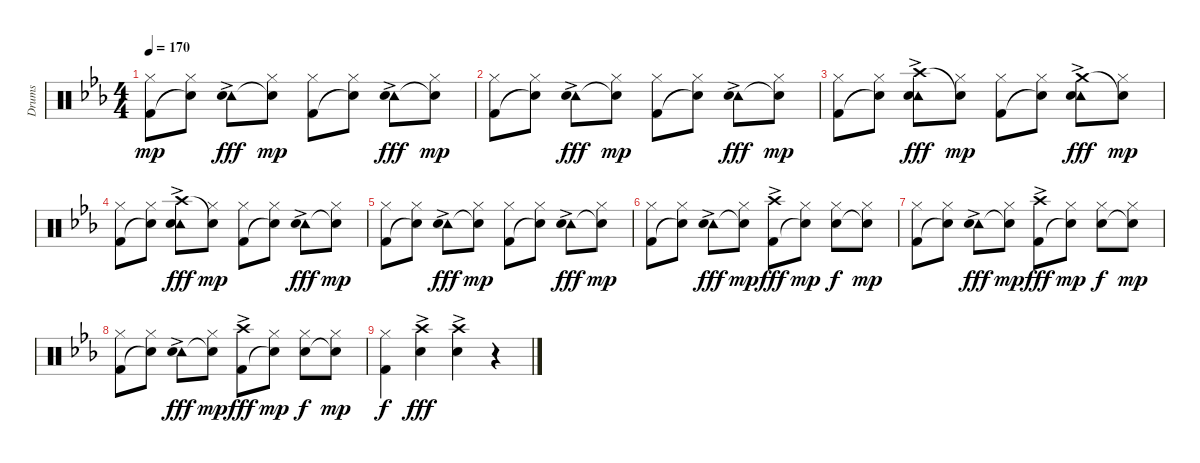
\track ("Drums" "Drums") {instrument percussion}
\staff {score}
\articulation defaults
\ts (4 4)
\tempo 170
\clef neutral
\ks cminor
("Hi-Hat (closed)" "Kick (hit) 2").8{dy mp} ("Hi-Hat (closed)" "Snare (hit)"{t}).8 ("Tambourine (hit)"{ac} "Hand Clap (hit)").8{dy fff} ("Hi-Hat (closed)" "Snare (hit)"{t}).8{dy mp} ("Hi-Hat (closed)" "Kick (hit) 2").8 ("Hi-Hat (closed)" "Snare (hit)"{t}).8 ("Tambourine (hit)"{ac} "Hand Clap (hit)").8{dy fff} ("Hi-Hat (closed)" "Snare (hit)"{t}).8{dy mp} |
("Hi-Hat (closed)" "Kick (hit) 2").8 ("Hi-Hat (closed)" "Snare (hit)"{t}).8 ("Tambourine (hit)"{ac} "Hand Clap (hit)").8{dy fff} ("Hi-Hat (closed)" "Snare (hit)"{t}).8{dy mp} ("Hi-Hat (closed)" "Kick (hit) 2").8 ("Hi-Hat (closed)" "Snare (hit)"{t}).8 ("Tambourine (hit)"{ac} "Hand Clap (hit)").8{dy fff} ("Hi-Hat (closed)" "Snare (hit)"{t}).8{dy mp} |
("Hi-Hat (closed)" "Kick (hit) 2").8 ("Hi-Hat (closed)" "Snare (hit)"{t}).8 ("Tambourine (hit)"{ac} "Crash high (hit)"{ac} "Hand Clap (hit)").8{dy fff} ("Hi-Hat (closed)" "Snare (hit)"{t}).8{dy mp} ("Hi-Hat (closed)" "Kick (hit) 2").8 ("Hi-Hat (closed)" "Snare (hit)"{t}).8 ("Tambourine (hit)"{ac} "Crash medium (hit)"{ac} "Hand Clap (hit)").8{dy fff} ("Hi-Hat (closed)" "Snare (hit)"{t}).8{dy mp} |
("Hi-Hat (closed)" "Kick (hit) 2").8 ("Hi-Hat (closed)" "Snare (hit)"{t}).8 ("Tambourine (hit)"{ac} "Crash high (hit)"{ac} "Hand Clap (hit)").8{dy fff} ("Hi-Hat (closed)" "Snare (hit)"{t}).8{dy mp} ("Hi-Hat (closed)" "Kick (hit) 2").8 ("Hi-Hat (closed)" "Snare (hit)"{t}).8 ("Tambourine (hit)"{ac} "Hand Clap (hit)").8{dy fff} ("Hi-Hat (closed)" "Snare (hit)"{t}).8{dy mp} |
("Hi-Hat (closed)" "Kick (hit) 2").8 ("Hi-Hat (closed)" "Snare (hit)"{t}).8 ("Tambourine (hit)"{ac} "Hand Clap (hit)").8{dy fff} ("Hi-Hat (closed)" "Snare (hit)"{t}).8{dy mp} ("Hi-Hat (closed)" "Kick (hit) 2").8 ("Hi-Hat (closed)" "Snare (hit)"{t}).8 ("Tambourine (hit)"{ac} "Hand Clap (hit)").8{dy fff} ("Hi-Hat (closed)" "Snare (hit)"{t}).8{dy mp} |
("Hi-Hat (closed)" "Kick (hit) 2").8 ("Hi-Hat (closed)" "Snare (hit)"{t}).8 ("Tambourine (hit)"{ac} "Hand Clap (hit)").8{dy fff} ("Hi-Hat (closed)" "Snare (hit)"{t}).8{dy mp} ("Crash high (hit)"{ac} "Kick (hit) 2").8{dy fff} ("Hi-Hat (closed)" "Snare (hit)"{t}).8{dy mp} ("Hi-Hat (closed)" "Hand Clap (hit)").8{dy f} ("Hi-Hat (closed)" "Snare (hit)"{t}).8{dy mp} |
("Hi-Hat (closed)" "Kick (hit) 2").8 ("Hi-Hat (closed)" "Snare (hit)"{t}).8 ("Tambourine (hit)"{ac} "Hand Clap (hit)").8{dy fff} ("Hi-Hat (closed)" "Snare (hit)"{t}).8{dy mp} ("Crash high (hit)"{ac} "Kick (hit) 2").8{dy fff} ("Hi-Hat (closed)" "Snare (hit)"{t}).8{dy mp} ("Hi-Hat (closed)" "Hand Clap (hit)").8{dy f} ("Hi-Hat (closed)" "Snare (hit)"{t}).8{dy mp} |
("Hi-Hat (closed)" "Kick (hit) 2").8 ("Hi-Hat (closed)" "Snare (hit)"{t}).8 ("Tambourine (hit)"{ac} "Hand Clap (hit)").8{dy fff} ("Hi-Hat (closed)" "Snare (hit)"{t}).8{dy mp} ("Crash high (hit)"{ac} "Kick (hit) 2").8{dy fff} ("Hi-Hat (closed)" "Snare (hit)"{t}).8{dy mp} ("Hi-Hat (closed)" "Hand Clap (hit)").8{dy f} ("Hi-Hat (closed)" "Snare (hit)"{t}).8{dy mp} |
("Hi-Hat (closed)" "Kick (hit) 2").4{dy f} ("Crash high (hit)"{ac} "Snare (hit) 2").4{dy fff} ("Crash high (hit)"{ac} "Snare (hit) 2").4 r.4
